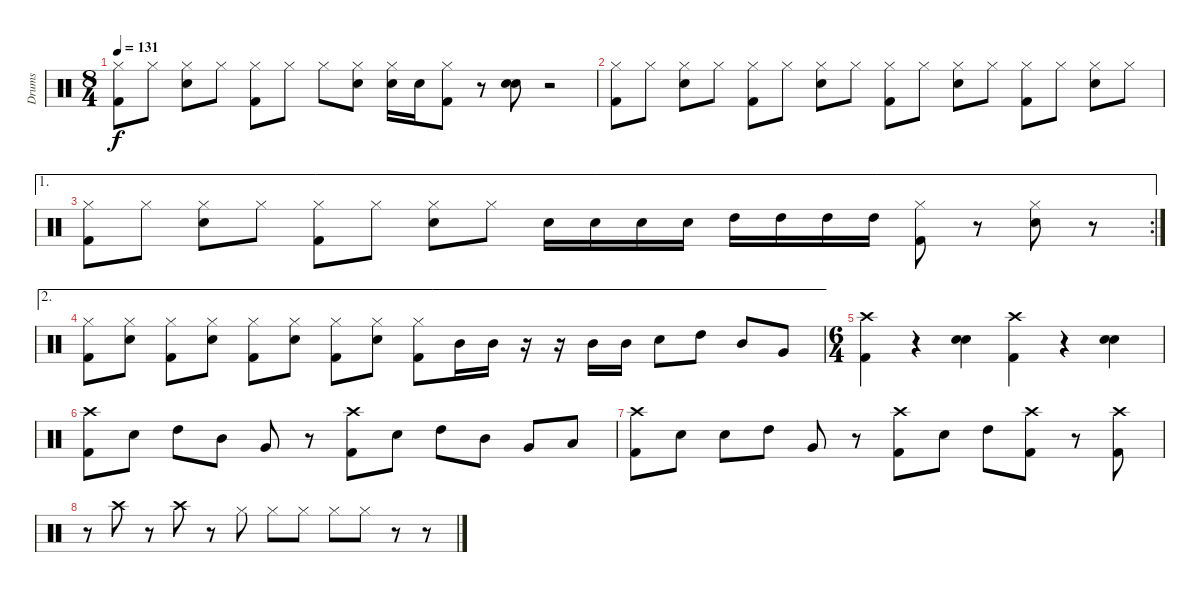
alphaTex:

\track ("Drums" "Drums") {instrument percussion}
\staff {score}
\articulation defaults
\ts (8 4)
\tempo 131
\clef neutral
\ks c
("Hi-Hat (closed)" "Kick (hit) 2").8{dy f} "Hi-Hat (closed)".8 ("Hi-Hat (closed)" "Snare (hit) 2").8 "Hi-Hat (closed)".8 ("Hi-Hat (closed)" "Kick (hit) 2").8 "Hi-Hat (closed)".8 "Hi-Hat (closed)".8 ("Hi-Hat (closed)" "Snare (hit) 2").8 ("Hi-Hat (closed)" "Snare (hit) 2").16 "Snare (hit) 2".16 ("Hi-Hat (closed)" "Kick (hit) 2").8 r.8 ("Snare (hit) 2" "Snare (hit) 2").8{bd 480} r.2 |
("Hi-Hat (closed)" "Kick (hit) 2").8 "Hi-Hat (closed)".8 ("Hi-Hat (closed)" "Snare (hit) 2").8 "Hi-Hat (closed)".8 ("Hi-Hat (closed)" "Kick (hit) 2").8 "Hi-Hat (closed)".8 ("Hi-Hat (closed)" "Snare (hit) 2").8 "Hi-Hat (closed)".8 ("Hi-Hat (closed)" "Kick (hit) 2").8 "Hi-Hat (closed)".8 ("Hi-Hat (closed)" "Snare (hit) 2").8 "Hi-Hat (closed)".8 ("Hi-Hat (closed)" "Kick (hit) 2").8 "Hi-Hat (closed)".8 ("Hi-Hat (closed)" "Snare (hit) 2").8 "Hi-Hat (closed)".8 |
\ae 1
\rc 2
("Hi-Hat (closed)" "Kick (hit) 2").8 "Hi-Hat (closed)".8 ("Hi-Hat (closed)" "Snare (hit) 2").8 "Hi-Hat (closed)".8 ("Hi-Hat (closed)" "Kick (hit) 2").8 "Hi-Hat (closed)".8 ("Hi-Hat (closed)" "Snare (hit) 2").8 "Hi-Hat (closed)".8 "Snare (hit) 2".16 "Snare (hit) 2".16 "Snare (hit) 2".16 "Snare (hit) 2".16 "High Tom (hit)".16 "High Tom (hit)".16 "High Tom (hit)".16 "High Tom (hit)".16 ("Hi-Hat (closed)" "Kick (hit) 2").8 r.8 ("Hi-Hat (closed)" "Snare (hit) 2").8 r.8 |
\ae 2
("Hi-Hat (closed)" "Kick (hit) 2").8 ("Hi-Hat (closed)" "Snare (hit) 2").8 ("Hi-Hat (closed)" "Kick (hit) 2").8 ("Hi-Hat (closed)" "Snare (hit) 2").8 ("Hi-Hat (closed)" "Kick (hit) 2").8 ("Hi-Hat (closed)" "Snare (hit) 2").8 ("Hi-Hat (closed)" "Kick (hit) 2").8 ("Hi-Hat (closed)" "Snare (hit) 2").8 ("Hi-Hat (closed)" "Kick (hit) 2").8 "Mid Tom (hit)".16 "Mid Tom (hit)".16 r.16 r.16 "Mid Tom (hit)".16 "Mid Tom (hit)".16 "Snare (hit) 2".8 "High Tom (hit)".8 "Mid Tom (hit)".8 "Very Low Tom (hit)".8 |
\ts (6 4)
("Crash high (hit)" "Kick (hit) 2").4 r.4 ("Snare (hit) 2" "Snare (hit) 2").4{bd 480} ("Crash high (hit)" "Kick (hit) 2").4 r.4 ("Snare (hit) 2" "Snare (hit) 2").4{bd 480} |
("Crash high (hit)" "Kick (hit) 2").8 "Snare (hit) 2".8 "High Tom (hit)".8 "Mid Tom (hit)".8 "Very Low Tom (hit)".8 r.8 ("Crash high (hit)" "Kick (hit) 2").8 "Snare (hit) 2".8 "High Tom (hit)".8 "Mid Tom (hit)".8 "Very Low Tom (hit)".8 "Low Floor Tom (hit)".8 |
("Crash high (hit)" "Kick (hit) 2").8 "Electric Snare (hit)".8 "Electric Snare (hit)".8 "High Tom (hit)".8 "Very Low Tom (hit)".8 r.8 ("Crash high (hit)" "Kick (hit) 2").8 "Snare (hit) 2".8 "High Tom (hit)".8 ("Crash high (hit)" "Kick (hit) 2").8 r.8 ("Crash high (hit)" "Kick (hit) 2").8 |
r.8 "Crash high (hit)".8 r.8 "Crash high (hit)".8 r.8 "Hi-Hat (closed)".8 "Hi-Hat (closed)".8 "Hi-Hat (closed)".8 "Hi-Hat (closed)".8 "Hi-Hat (closed)".8 r.8 r.8
